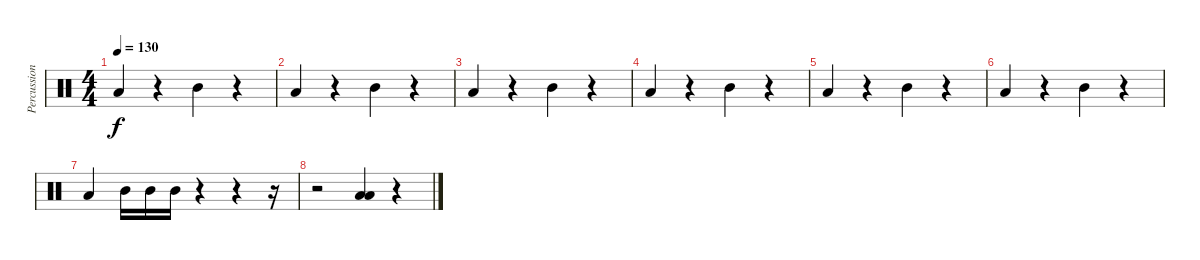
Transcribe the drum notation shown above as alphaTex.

\track ("Percussions" "Percussion") {instrument percussion}
\staff {score}
\articulation defaults
\ts (4 4)
\tempo 130
\clef neutral
\ks c "Low Tom (hit)".4{dy f}
r.4 "Mid Tom (hit)".4 r.4 |
"Low Tom (hit)".4 r.4 "Mid Tom (hit)".4 r.4 |
"Low Tom (hit)".4 r.4 "Mid Tom (hit)".4 r.4 |
"Low Tom (hit)".4 r.4 "Mid Tom (hit)".4 r.4 |
"Low Tom (hit)".4 r.4 "Mid Tom (hit)".4 r.4 |
"Low Tom (hit)".4 r.4 "Mid Tom (hit)".4 r.4 |
"Low Tom (hit)".4 "Mid Tom (hit)".16 "Mid Tom (hit)".16 "Mid Tom (hit)".16 r.4 r.4 r.16 |
r.2 ("Low Tom (hit)" "Low Tom (hit)").4 r.4
